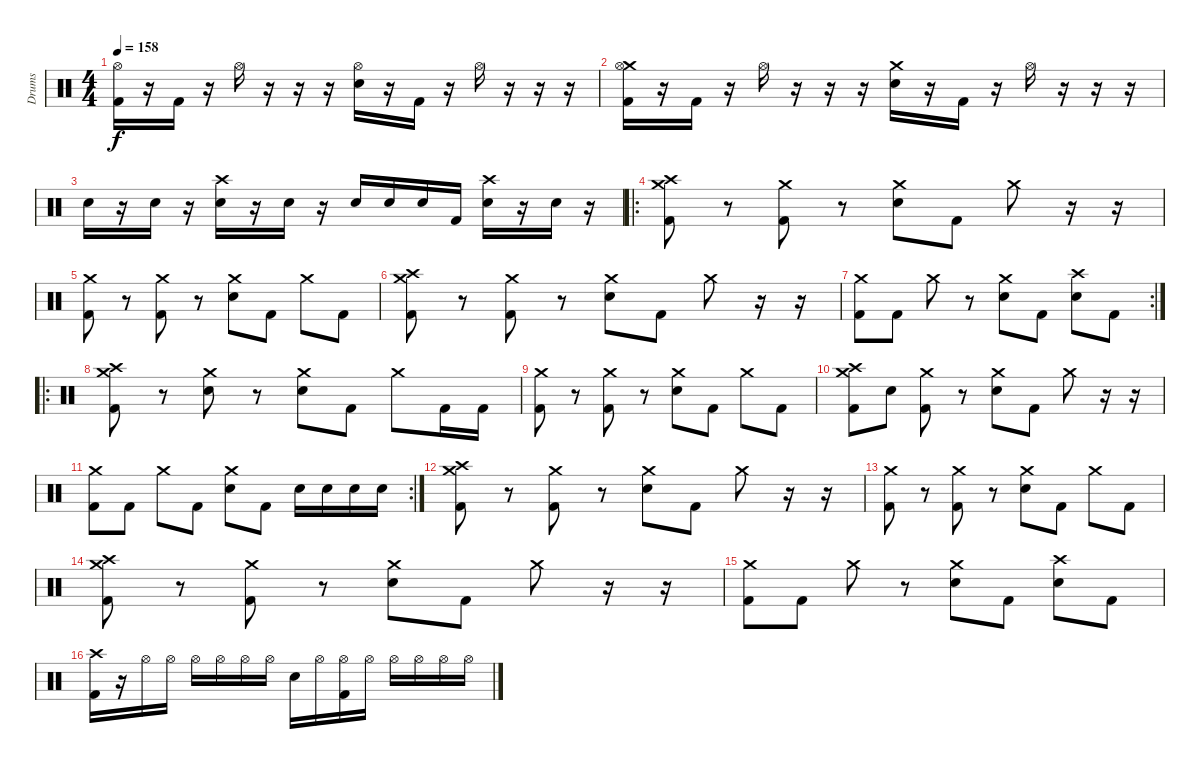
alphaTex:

\track ("Drums" "Drums") {instrument percussion}
\staff {score}
\articulation defaults
\ts (4 4)
\tempo 158
\clef neutral
\ks c
("Hi-Hat (open)" "Kick (hit) 2").16{dy f} r.16 "Kick (hit) 2".16 r.16 "Hi-Hat (open)".16 r.16 r.16 r.16 ("Hi-Hat (open)" "Snare (hit) 2").16 r.16 "Kick (hit) 2".16 r.16 "Hi-Hat (open)".16 r.16 r.16 r.16 |
("Crash medium (hit)" "Hi-Hat (open)" "Kick (hit) 2").16 r.16 "Kick (hit) 2".16 r.16 "Hi-Hat (open)".16 r.16 r.16 r.16 ("Crash medium (hit)" "Snare (hit) 2").16 r.16 "Kick (hit) 2".16 r.16 "Hi-Hat (open)".16 r.16 r.16 r.16 |
"Snare (hit) 2".16 r.16 "Snare (hit) 2".16 r.16 ("Crash high (hit)" "Snare (hit) 2").16 r.16 "Snare (hit) 2".16 r.16 "Snare (hit) 2".16 "Snare (hit) 2".16 "Snare (hit) 2".16 "Kick (hit) 2".16 ("Crash high (hit)" "Snare (hit) 2").16 r.16 "Snare (hit) 2".16 r.16 |
\ro
("Crash high (hit)" "Crash medium (hit)" "Kick (hit) 2").8 r.8 ("Crash medium (hit)" "Kick (hit) 2").8 r.8 ("Crash medium (hit)" "Snare (hit) 2").8 "Kick (hit) 2".8 "Crash medium (hit)".8 r.16 r.16 |
("Crash medium (hit)" "Kick (hit) 2").8 r.8 ("Crash medium (hit)" "Kick (hit) 2").8 r.8 ("Crash medium (hit)" "Snare (hit) 2").8 "Kick (hit) 2".8 "Crash medium (hit)".8 "Kick (hit) 2".8 |
("Crash high (hit)" "Crash medium (hit)" "Kick (hit) 2").8 r.8 ("Crash medium (hit)" "Kick (hit) 2").8 r.8 ("Crash medium (hit)" "Snare (hit) 2").8 "Kick (hit) 2".8 "Crash medium (hit)".8 r.16 r.16 |
\rc 2
("Crash medium (hit)" "Kick (hit) 2").8 "Kick (hit) 2".8 "Crash medium (hit)".8 r.8 ("Crash medium (hit)" "Snare (hit) 2").8 "Kick (hit) 2".8 ("Crash high (hit)" "Snare (hit) 2").8 "Kick (hit) 2".8 |
\ro
("Crash high (hit)" "Crash medium (hit)" "Kick (hit) 2").8 r.8 ("Crash medium (hit)" "Snare (hit) 2").8 r.8 ("Crash medium (hit)" "Snare (hit) 2").8 "Kick (hit) 2".8 "Crash medium (hit)".8 "Kick (hit) 2".16 "Kick (hit) 2".16 |
("Crash medium (hit)" "Kick (hit) 2").8 r.8 ("Crash medium (hit)" "Kick (hit) 2").8 r.8 ("Crash medium (hit)" "Snare (hit) 2").8 "Kick (hit) 2".8 "Crash medium (hit)".8 "Kick (hit) 2".8 |
("Crash high (hit)" "Crash medium (hit)" "Kick (hit) 2").8 "Snare (hit) 2".8 ("Crash medium (hit)" "Kick (hit) 2").8 r.8 ("Crash medium (hit)" "Snare (hit) 2").8 "Kick (hit) 2".8 "Crash medium (hit)".8 r.16 r.16 |
\rc 2
("Crash medium (hit)" "Kick (hit) 2").8 "Kick (hit) 2".8 "Crash medium (hit)".8 "Kick (hit) 2".8 ("Crash medium (hit)" "Snare (hit) 2").8 "Kick (hit) 2".8 "Snare (hit) 2".16 "Snare (hit) 2".16 "Snare (hit) 2".16 "Snare (hit) 2".16 |
("Crash high (hit)" "Crash medium (hit)" "Kick (hit) 2").8 r.8 ("Crash medium (hit)" "Kick (hit) 2").8 r.8 ("Crash medium (hit)" "Snare (hit) 2").8 "Kick (hit) 2".8 "Crash medium (hit)".8 r.16 r.16 |
("Crash medium (hit)" "Kick (hit) 2").8 r.8 ("Crash medium (hit)" "Kick (hit) 2").8 r.8 ("Crash medium (hit)" "Snare (hit) 2").8 "Kick (hit) 2".8 "Crash medium (hit)".8 "Kick (hit) 2".8 |
("Crash high (hit)" "Crash medium (hit)" "Kick (hit) 2").8 r.8 ("Crash medium (hit)" "Kick (hit) 2").8 r.8 ("Crash medium (hit)" "Snare (hit) 2").8 "Kick (hit) 2".8 "Crash medium (hit)".8 r.16 r.16 |
("Crash medium (hit)" "Kick (hit) 2").8 "Kick (hit) 2".8 "Crash medium (hit)".8 r.8 ("Crash medium (hit)" "Snare (hit) 2").8 "Kick (hit) 2".8 ("Crash high (hit)" "Snare (hit) 2").8 "Kick (hit) 2".8 |
("Crash high (hit)" "Kick (hit) 2").16 r.16 "Hi-Hat (open)".16 "Hi-Hat (open)".16 "Hi-Hat (open)".16 "Hi-Hat (open)".16 "Hi-Hat (open)".16 "Hi-Hat (open)".16 "Snare (hit) 2".16 "Hi-Hat (open)".16 ("Hi-Hat (open)" "Kick (hit) 2").16 "Hi-Hat (open)".16 "Hi-Hat (open)".16 "Hi-Hat (open)".16 "Hi-Hat (open)".16 "Hi-Hat (open)".16
